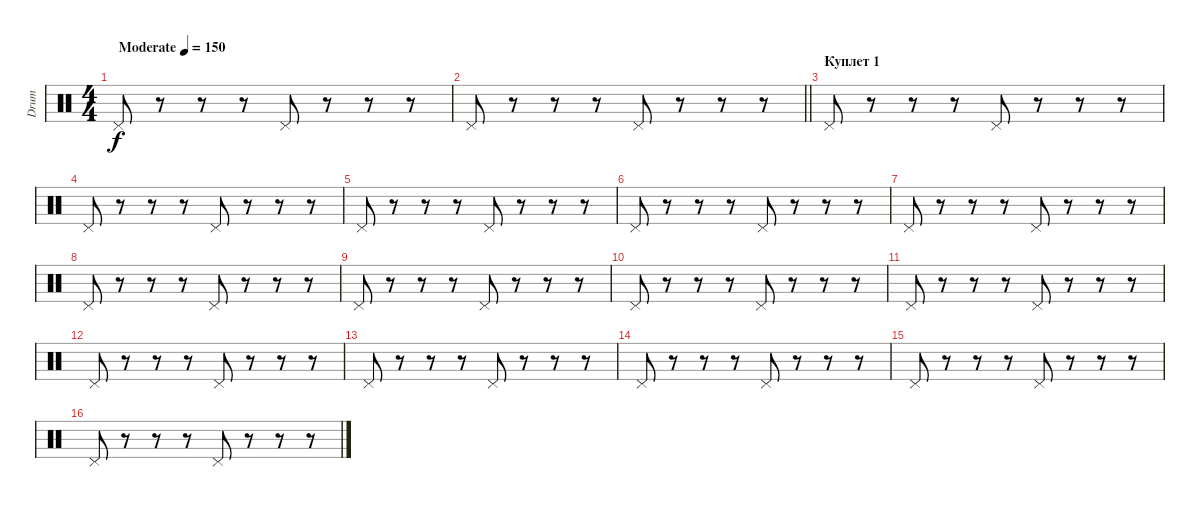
\track ("Drum" "Drum") {instrument percussion}
\staff {score}
\articulation defaults
\ts (4 4)
\tempo (150 "Moderate")
\clef neutral
\ks c "Pedal Hi-Hat (hit)".8{dy f}
r.8 r.8 r.8 "Pedal Hi-Hat (hit)".8 r.8 r.8 r.8 |
\barLineRight lightlight "Pedal Hi-Hat (hit)".8
r.8 r.8 r.8 "Pedal Hi-Hat (hit)".8 r.8 r.8 r.8 |
\section ("" "Куплет 1")
"Pedal Hi-Hat (hit)".8 r.8 r.8 r.8 "Pedal Hi-Hat (hit)".8 r.8 r.8 r.8 |
"Pedal Hi-Hat (hit)".8 r.8 r.8 r.8 "Pedal Hi-Hat (hit)".8 r.8 r.8 r.8 |
"Pedal Hi-Hat (hit)".8 r.8 r.8 r.8 "Pedal Hi-Hat (hit)".8 r.8 r.8 r.8 |
"Pedal Hi-Hat (hit)".8 r.8 r.8 r.8 "Pedal Hi-Hat (hit)".8 r.8 r.8 r.8 |
"Pedal Hi-Hat (hit)".8 r.8 r.8 r.8 "Pedal Hi-Hat (hit)".8 r.8 r.8 r.8 |
"Pedal Hi-Hat (hit)".8 r.8 r.8 r.8 "Pedal Hi-Hat (hit)".8 r.8 r.8 r.8 |
"Pedal Hi-Hat (hit)".8 r.8 r.8 r.8 "Pedal Hi-Hat (hit)".8 r.8 r.8 r.8 |
"Pedal Hi-Hat (hit)".8 r.8 r.8 r.8 "Pedal Hi-Hat (hit)".8 r.8 r.8 r.8 |
"Pedal Hi-Hat (hit)".8 r.8 r.8 r.8 "Pedal Hi-Hat (hit)".8 r.8 r.8 r.8 |
"Pedal Hi-Hat (hit)".8 r.8 r.8 r.8 "Pedal Hi-Hat (hit)".8 r.8 r.8 r.8 |
"Pedal Hi-Hat (hit)".8 r.8 r.8 r.8 "Pedal Hi-Hat (hit)".8 r.8 r.8 r.8 |
"Pedal Hi-Hat (hit)".8 r.8 r.8 r.8 "Pedal Hi-Hat (hit)".8 r.8 r.8 r.8 |
"Pedal Hi-Hat (hit)".8 r.8 r.8 r.8 "Pedal Hi-Hat (hit)".8 r.8 r.8 r.8 |
"Pedal Hi-Hat (hit)".8 r.8 r.8 r.8 "Pedal Hi-Hat (hit)".8 r.8 r.8 r.8
